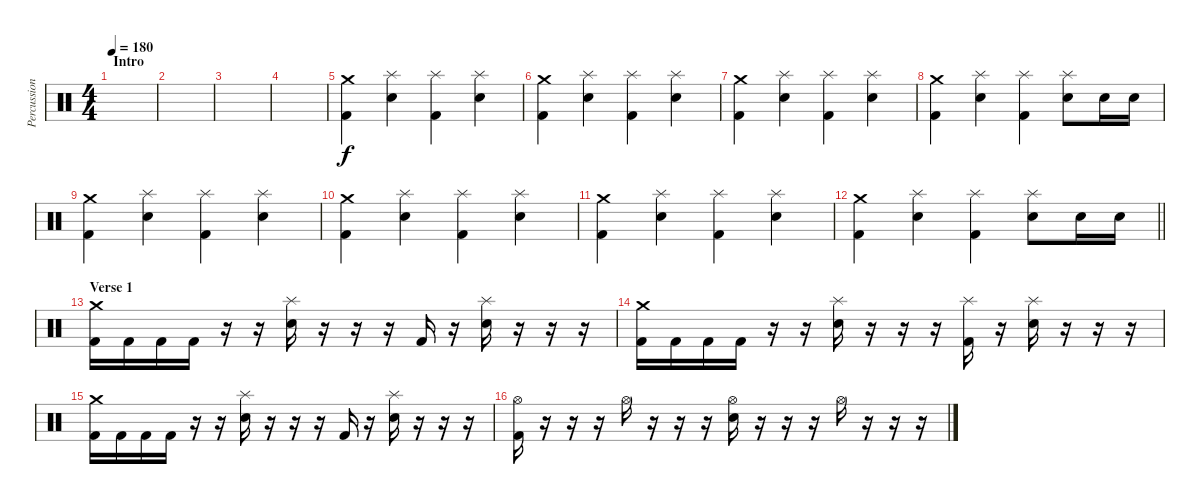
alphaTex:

\track ("Percussion" "Percussion") {instrument percussion}
\staff {score}
\articulation defaults
\ts (4 4)
\section ("" "Intro")
\tempo 180
\clef neutral
\ks c
|
|
|
|
("Crash medium (hit)" "Kick (hit) 2").4 ("Splash (hit)" "Electric Snare (hit)").4 ("Splash (hit)" "Kick (hit) 2").4 ("Splash (hit)" "Electric Snare (hit)").4 |
("Crash medium (hit)" "Kick (hit) 2").4 ("Splash (hit)" "Electric Snare (hit)").4 ("Splash (hit)" "Kick (hit) 2").4 ("Splash (hit)" "Electric Snare (hit)").4 |
("Crash medium (hit)" "Kick (hit) 2").4 ("Splash (hit)" "Electric Snare (hit)").4 ("Splash (hit)" "Kick (hit) 2").4 ("Splash (hit)" "Electric Snare (hit)").4 |
("Crash medium (hit)" "Kick (hit) 2").4 ("Splash (hit)" "Electric Snare (hit)").4 ("Splash (hit)" "Kick (hit) 2").4 ("Splash (hit)" "Electric Snare (hit)").8 "Electric Snare (hit)".16 "Electric Snare (hit)".16 |
("Crash medium (hit)" "Kick (hit) 2").4 ("Splash (hit)" "Electric Snare (hit)").4 ("Splash (hit)" "Kick (hit) 2").4 ("Splash (hit)" "Electric Snare (hit)").4 |
("Crash medium (hit)" "Kick (hit) 2").4 ("Splash (hit)" "Electric Snare (hit)").4 ("Splash (hit)" "Kick (hit) 2").4 ("Splash (hit)" "Electric Snare (hit)").4 |
("Crash medium (hit)" "Kick (hit) 2").4 ("Splash (hit)" "Electric Snare (hit)").4 ("Splash (hit)" "Kick (hit) 2").4 ("Splash (hit)" "Electric Snare (hit)").4 |
\barLineRight lightlight
("Crash medium (hit)" "Kick (hit) 2").4 ("Splash (hit)" "Electric Snare (hit)").4 ("Splash (hit)" "Kick (hit) 2").4 ("Splash (hit)" "Electric Snare (hit)").8 "Electric Snare (hit)".16 "Electric Snare (hit)".16 |
\section ("" "Verse 1")
("Crash medium (hit)" "Kick (hit) 2").16 "Kick (hit) 2".16 "Kick (hit) 2".16 "Kick (hit) 2".16 r.16 r.16 ("Splash (hit)" "Electric Snare (hit)").16 r.16 r.16 r.16 "Kick (hit) 2".16 r.16 ("Splash (hit)" "Electric Snare (hit)").16 r.16 r.16 r.16 |
("Crash medium (hit)" "Kick (hit) 2").16 "Kick (hit) 2".16 "Kick (hit) 2".16 "Kick (hit) 2".16 r.16 r.16 ("Splash (hit)" "Electric Snare (hit)").16 r.16 r.16 r.16 ("Splash (hit)" "Kick (hit) 2").16 r.16 ("Splash (hit)" "Electric Snare (hit)").16 r.16 r.16 r.16 |
("Crash medium (hit)" "Kick (hit) 2").16 "Kick (hit) 2".16 "Kick (hit) 2".16 "Kick (hit) 2".16 r.16 r.16 ("Splash (hit)" "Electric Snare (hit)").16 r.16 r.16 r.16 "Kick (hit) 2".16 r.16 ("Splash (hit)" "Electric Snare (hit)").16 r.16 r.16 r.16 |
("Hi-Hat (open)" "Kick (hit) 2").16 r.16 r.16 r.16 "Hi-Hat (open)".16 r.16 r.16 r.16 ("Hi-Hat (open)" "Electric Snare (hit)").16 r.16 r.16 r.16 "Hi-Hat (open)".16 r.16 r.16 r.16
